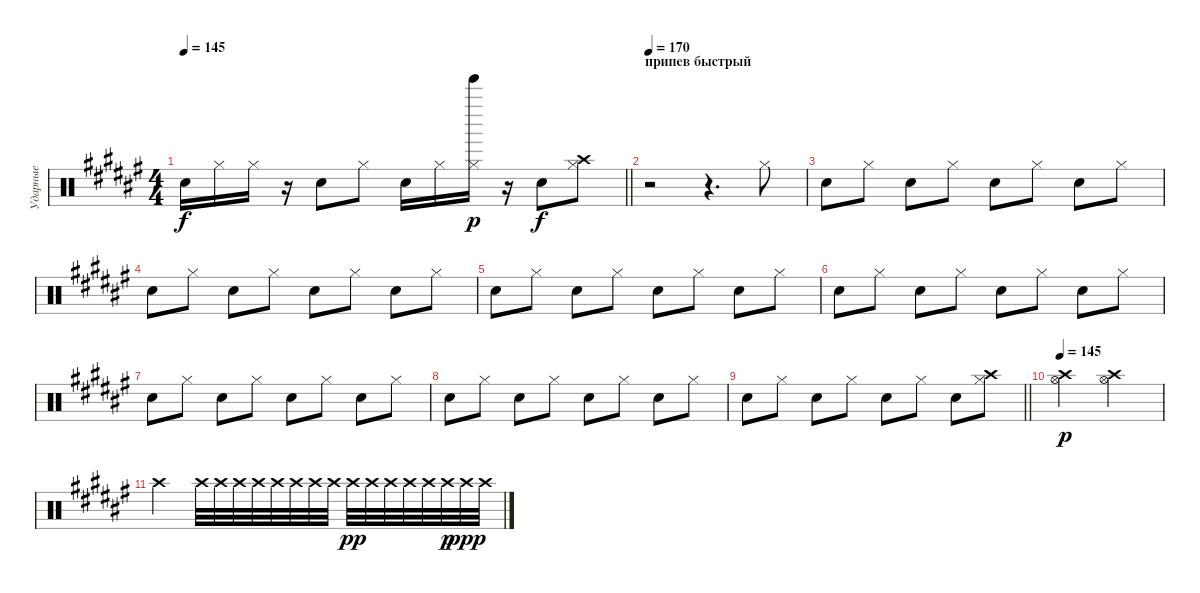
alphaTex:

\track ("Ударные" "Ударные") {instrument percussion}
\staff {score}
\articulation defaults
\ts (4 4)
\tempo 145
\clef neutral
\barLineRight lightlight
\ks f# "Electric Snare (hit)".16{dy f} "Hi-Hat (closed)".16 "Hi-Hat (closed)".16
r.16 "Electric Snare (hit)".8 "Hi-Hat (closed)".8 "Electric Snare (hit)".16 "Hi-Hat (closed)".16 ("Hi-Hat (closed)" "Tinkle Bell (hit)").16{dy p} r.16 "Electric Snare (hit)".8{dy f} ("Hi-Hat (closed)" "Crash high (hit)").8 |
\section ("" "припев быстрый")
\tempo 170
r.2 r.4{d} "Hi-Hat (closed)".8 |
"Electric Snare (hit)".8 "Hi-Hat (closed)".8 "Electric Snare (hit)".8 "Hi-Hat (closed)".8 "Electric Snare (hit)".8 "Hi-Hat (closed)".8 "Electric Snare (hit)".8 "Hi-Hat (closed)".8 |
"Electric Snare (hit)".8 "Hi-Hat (closed)".8 "Electric Snare (hit)".8 "Hi-Hat (closed)".8 "Electric Snare (hit)".8 "Hi-Hat (closed)".8 "Electric Snare (hit)".8 "Hi-Hat (closed)".8 |
"Electric Snare (hit)".8 "Hi-Hat (closed)".8 "Electric Snare (hit)".8 "Hi-Hat (closed)".8 "Electric Snare (hit)".8 "Hi-Hat (closed)".8 "Electric Snare (hit)".8 "Hi-Hat (closed)".8 |
"Electric Snare (hit)".8 "Hi-Hat (closed)".8 "Electric Snare (hit)".8 "Hi-Hat (closed)".8 "Electric Snare (hit)".8 "Hi-Hat (closed)".8 "Electric Snare (hit)".8 "Hi-Hat (closed)".8 |
"Electric Snare (hit)".8 "Hi-Hat (closed)".8 "Electric Snare (hit)".8 "Hi-Hat (closed)".8 "Electric Snare (hit)".8 "Hi-Hat (closed)".8 "Electric Snare (hit)".8 "Hi-Hat (closed)".8 |
"Electric Snare (hit)".8 "Hi-Hat (closed)".8 "Electric Snare (hit)".8 "Hi-Hat (closed)".8 "Electric Snare (hit)".8 "Hi-Hat (closed)".8 "Electric Snare (hit)".8 "Hi-Hat (closed)".8 |
\barLineRight lightlight "Electric Snare (hit)".8 "Hi-Hat (closed)".8 "Electric Snare (hit)".8 "Hi-Hat (closed)".8 "Electric Snare (hit)".8 "Hi-Hat (closed)".8 "Electric Snare (hit)".8
("Hi-Hat (closed)" "Crash high (hit)").8 |
\tempo 145
("Crash high (hit)" "Hi-Hat (open)").2{dy p} ("Crash high (hit)" "Hi-Hat (open)").2 |
"Crash high (hit)".2 "Crash high (hit)".32 "Crash high (hit)".32 "Crash high (hit)".32 "Crash high (hit)".32 "Crash high (hit)".32 "Crash high (hit)".32 "Crash high (hit)".32 "Crash high (hit)".32 "Crash high (hit)".32{dy pp} "Crash high (hit)".32 "Crash high (hit)".32 "Crash high (hit)".32 "Crash high (hit)".32 "Crash high (hit)".32{dy p} "Crash high (hit)".32{dy ppp} "Crash high (hit)".32
